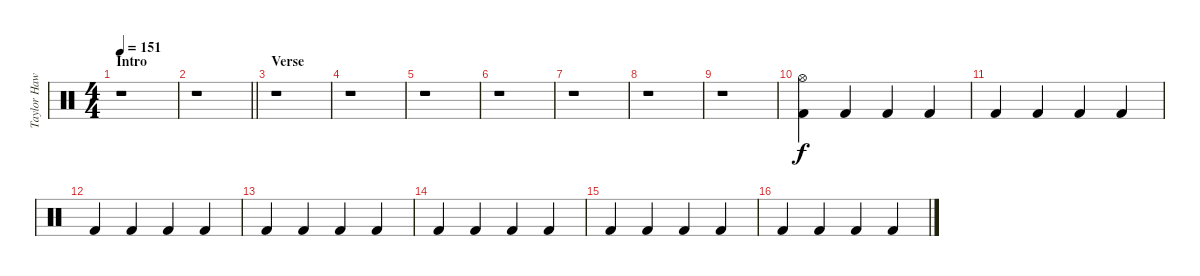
\track ("Taylor Hawkins" "Taylor Haw") {instrument percussion}
\staff {score}
\articulation defaults
\ts (4 4)
\section ("" "Intro")
\tempo 151
\clef neutral
\ks c
r.1{dy f} |
\barLineRight lightlight
r.1 |
\section ("" "Verse")
r.1 |
r.1 |
r.1 |
r.1 |
r.1 |
r.1 |
r.1 |
("Hi-Hat (open)" "Kick (hit) 2").4 "Kick (hit) 2".4 "Kick (hit) 2".4 "Kick (hit) 2".4 |
"Kick (hit) 2".4 "Kick (hit) 2".4 "Kick (hit) 2".4 "Kick (hit) 2".4 |
"Kick (hit) 2".4 "Kick (hit) 2".4 "Kick (hit) 2".4 "Kick (hit) 2".4 |
"Kick (hit) 2".4 "Kick (hit) 2".4 "Kick (hit) 2".4 "Kick (hit) 2".4 |
"Kick (hit) 2".4 "Kick (hit) 2".4 "Kick (hit) 2".4 "Kick (hit) 2".4 |
"Kick (hit) 2".4 "Kick (hit) 2".4 "Kick (hit) 2".4 "Kick (hit) 2".4 |
"Kick (hit) 2".4 "Kick (hit) 2".4 "Kick (hit) 2".4 "Kick (hit) 2".4
